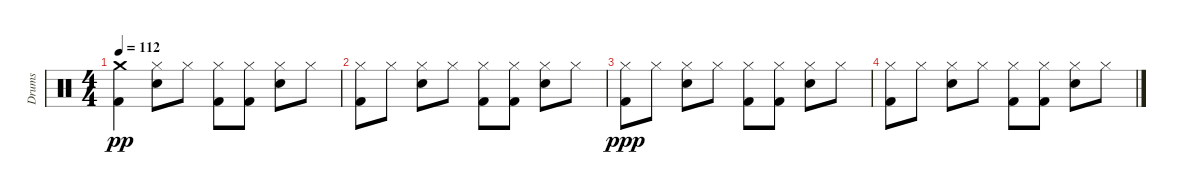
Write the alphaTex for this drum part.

\track ("Drums" "Drums") {instrument percussion}
\staff {score}
\articulation defaults
\ts (4 4)
\tempo 112
\clef neutral
\ks c
("Crash medium (hit)" "Kick (hit) 2").4{dy pp} ("Hi-Hat (closed)" "Snare (hit) 2").8 "Hi-Hat (closed)".8 ("Hi-Hat (closed)" "Kick (hit) 2").8 ("Hi-Hat (closed)" "Kick (hit) 2").8 ("Hi-Hat (closed)" "Snare (hit) 2").8 "Hi-Hat (closed)".8 |
("Hi-Hat (closed)" "Kick (hit) 2").8 "Hi-Hat (closed)".8 ("Hi-Hat (closed)" "Snare (hit) 2").8 "Hi-Hat (closed)".8 ("Hi-Hat (closed)" "Kick (hit) 2").8 ("Hi-Hat (closed)" "Kick (hit) 2").8 ("Hi-Hat (closed)" "Snare (hit) 2").8 "Hi-Hat (closed)".8 |
("Hi-Hat (closed)" "Kick (hit) 2").8{dy ppp} "Hi-Hat (closed)".8 ("Hi-Hat (closed)" "Snare (hit) 2").8 "Hi-Hat (closed)".8 ("Hi-Hat (closed)" "Kick (hit) 2").8 ("Hi-Hat (closed)" "Kick (hit) 2").8 ("Hi-Hat (closed)" "Snare (hit) 2").8 "Hi-Hat (closed)".8 |
("Hi-Hat (closed)" "Kick (hit) 2").8 "Hi-Hat (closed)".8 ("Hi-Hat (closed)" "Snare (hit) 2").8 "Hi-Hat (closed)".8 ("Hi-Hat (closed)" "Kick (hit) 2").8{volume 0} ("Hi-Hat (closed)" "Kick (hit) 2").8 ("Hi-Hat (closed)" "Snare (hit) 2").8 "Hi-Hat (closed)".8
